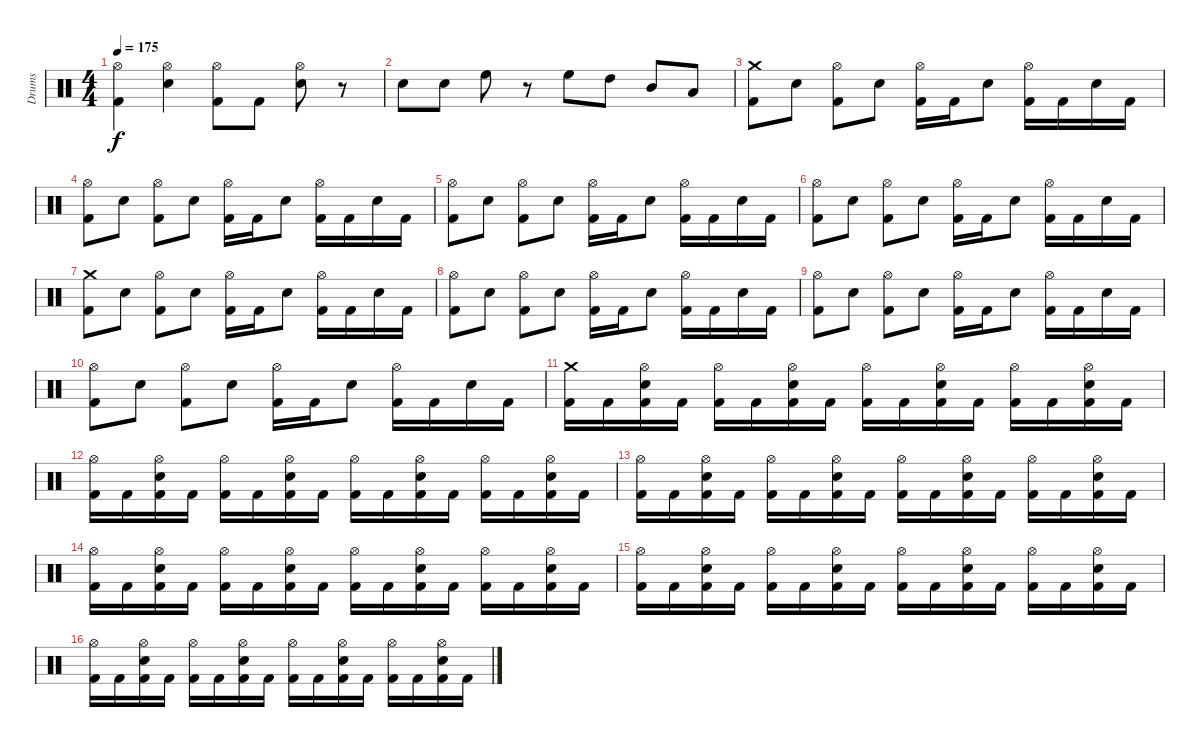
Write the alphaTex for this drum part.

\track ("Drums" "Drums") {instrument percussion}
\staff {score}
\articulation defaults
\ts (4 4)
\tempo 175
\clef neutral
\ks c
("Hi-Hat (open)" "Kick (hit) 2").4{dy f} ("Hi-Hat (open)" "Electric Snare (hit)").4 ("Hi-Hat (open)" "Kick (hit) 2").8 "Kick (hit) 2".8 ("Hi-Hat (open)" "Electric Snare (hit)").8 r.8 |
"Electric Snare (hit)".8 "Electric Snare (hit)".8 "High Floor Tom (hit)".8 r.8 "High Floor Tom (hit)".8 "High Tom (hit)".8 "Mid Tom (hit)".8 "Low Tom (hit)".8 |
("Crash medium (hit)" "Kick (hit) 2").8 "Electric Snare (hit)".8 ("Hi-Hat (open)" "Kick (hit) 2").8 "Electric Snare (hit)".8 ("Hi-Hat (open)" "Kick (hit) 2").16 "Kick (hit) 2".16 "Electric Snare (hit)".8 ("Hi-Hat (open)" "Kick (hit) 2").16 "Kick (hit) 2".16 "Electric Snare (hit)".16 "Kick (hit) 2".16 |
("Hi-Hat (open)" "Kick (hit) 2").8 "Electric Snare (hit)".8 ("Hi-Hat (open)" "Kick (hit) 2").8 "Electric Snare (hit)".8 ("Hi-Hat (open)" "Kick (hit) 2").16 "Kick (hit) 2".16 "Electric Snare (hit)".8 ("Hi-Hat (open)" "Kick (hit) 2").16 "Kick (hit) 2".16 "Electric Snare (hit)".16 "Kick (hit) 2".16 |
("Hi-Hat (open)" "Kick (hit) 2").8 "Electric Snare (hit)".8 ("Hi-Hat (open)" "Kick (hit) 2").8 "Electric Snare (hit)".8 ("Hi-Hat (open)" "Kick (hit) 2").16 "Kick (hit) 2".16 "Electric Snare (hit)".8 ("Hi-Hat (open)" "Kick (hit) 2").16 "Kick (hit) 2".16 "Electric Snare (hit)".16 "Kick (hit) 2".16 |
("Hi-Hat (open)" "Kick (hit) 2").8 "Electric Snare (hit)".8 ("Hi-Hat (open)" "Kick (hit) 2").8 "Electric Snare (hit)".8 ("Hi-Hat (open)" "Kick (hit) 2").16 "Kick (hit) 2".16 "Electric Snare (hit)".8 ("Hi-Hat (open)" "Kick (hit) 2").16 "Kick (hit) 2".16 "Electric Snare (hit)".16 "Kick (hit) 2".16 |
("Crash medium (hit)" "Kick (hit) 2").8 "Electric Snare (hit)".8 ("Hi-Hat (open)" "Kick (hit) 2").8 "Electric Snare (hit)".8 ("Hi-Hat (open)" "Kick (hit) 2").16 "Kick (hit) 2".16 "Electric Snare (hit)".8 ("Hi-Hat (open)" "Kick (hit) 2").16 "Kick (hit) 2".16 "Electric Snare (hit)".16 "Kick (hit) 2".16 |
("Hi-Hat (open)" "Kick (hit) 2").8 "Electric Snare (hit)".8 ("Hi-Hat (open)" "Kick (hit) 2").8 "Electric Snare (hit)".8 ("Hi-Hat (open)" "Kick (hit) 2").16 "Kick (hit) 2".16 "Electric Snare (hit)".8 ("Hi-Hat (open)" "Kick (hit) 2").16 "Kick (hit) 2".16 "Electric Snare (hit)".16 "Kick (hit) 2".16 |
("Hi-Hat (open)" "Kick (hit) 2").8 "Electric Snare (hit)".8 ("Hi-Hat (open)" "Kick (hit) 2").8 "Electric Snare (hit)".8 ("Hi-Hat (open)" "Kick (hit) 2").16 "Kick (hit) 2".16 "Electric Snare (hit)".8 ("Hi-Hat (open)" "Kick (hit) 2").16 "Kick (hit) 2".16 "Electric Snare (hit)".16 "Kick (hit) 2".16 |
("Hi-Hat (open)" "Kick (hit) 2").8 "Electric Snare (hit)".8 ("Hi-Hat (open)" "Kick (hit) 2").8 "Electric Snare (hit)".8 ("Hi-Hat (open)" "Kick (hit) 2").16 "Kick (hit) 2".16 "Electric Snare (hit)".8 ("Hi-Hat (open)" "Kick (hit) 2").16 "Kick (hit) 2".16 "Electric Snare (hit)".16 "Kick (hit) 2".16 |
("Crash medium (hit)" "Kick (hit) 2").16 "Kick (hit) 2".16 ("Hi-Hat (open)" "Kick (hit) 2" "Electric Snare (hit)").16 "Kick (hit) 2".16 ("Hi-Hat (open)" "Kick (hit) 2").16 "Kick (hit) 2".16 ("Hi-Hat (open)" "Kick (hit) 2" "Electric Snare (hit)").16 "Kick (hit) 2".16 ("Hi-Hat (open)" "Kick (hit) 2").16 "Kick (hit) 2".16 ("Hi-Hat (open)" "Kick (hit) 2" "Electric Snare (hit)").16 "Kick (hit) 2".16 ("Hi-Hat (open)" "Kick (hit) 2").16 "Kick (hit) 2".16 ("Hi-Hat (open)" "Kick (hit) 2" "Electric Snare (hit)").16 "Kick (hit) 2".16 |
("Hi-Hat (open)" "Kick (hit) 2").16 "Kick (hit) 2".16 ("Hi-Hat (open)" "Kick (hit) 2" "Electric Snare (hit)").16 "Kick (hit) 2".16 ("Hi-Hat (open)" "Kick (hit) 2").16 "Kick (hit) 2".16 ("Hi-Hat (open)" "Kick (hit) 2" "Electric Snare (hit)").16 "Kick (hit) 2".16 ("Hi-Hat (open)" "Kick (hit) 2").16 "Kick (hit) 2".16 ("Hi-Hat (open)" "Kick (hit) 2" "Electric Snare (hit)").16 "Kick (hit) 2".16 ("Hi-Hat (open)" "Kick (hit) 2").16 "Kick (hit) 2".16 ("Hi-Hat (open)" "Kick (hit) 2" "Electric Snare (hit)").16 "Kick (hit) 2".16 |
("Hi-Hat (open)" "Kick (hit) 2").16 "Kick (hit) 2".16 ("Hi-Hat (open)" "Kick (hit) 2" "Electric Snare (hit)").16 "Kick (hit) 2".16 ("Hi-Hat (open)" "Kick (hit) 2").16 "Kick (hit) 2".16 ("Hi-Hat (open)" "Kick (hit) 2" "Electric Snare (hit)").16 "Kick (hit) 2".16 ("Hi-Hat (open)" "Kick (hit) 2").16 "Kick (hit) 2".16 ("Hi-Hat (open)" "Kick (hit) 2" "Electric Snare (hit)").16 "Kick (hit) 2".16 ("Hi-Hat (open)" "Kick (hit) 2").16 "Kick (hit) 2".16 ("Hi-Hat (open)" "Kick (hit) 2" "Electric Snare (hit)").16 "Kick (hit) 2".16 |
("Hi-Hat (open)" "Kick (hit) 2").16 "Kick (hit) 2".16 ("Hi-Hat (open)" "Kick (hit) 2" "Electric Snare (hit)").16 "Kick (hit) 2".16 ("Hi-Hat (open)" "Kick (hit) 2").16 "Kick (hit) 2".16 ("Hi-Hat (open)" "Kick (hit) 2" "Electric Snare (hit)").16 "Kick (hit) 2".16 ("Hi-Hat (open)" "Kick (hit) 2").16 "Kick (hit) 2".16 ("Hi-Hat (open)" "Kick (hit) 2" "Electric Snare (hit)").16 "Kick (hit) 2".16 ("Hi-Hat (open)" "Kick (hit) 2").16 "Kick (hit) 2".16 ("Hi-Hat (open)" "Kick (hit) 2" "Electric Snare (hit)").16 "Kick (hit) 2".16 |
("Hi-Hat (open)" "Kick (hit) 2").16 "Kick (hit) 2".16 ("Hi-Hat (open)" "Kick (hit) 2" "Electric Snare (hit)").16 "Kick (hit) 2".16 ("Hi-Hat (open)" "Kick (hit) 2").16 "Kick (hit) 2".16 ("Hi-Hat (open)" "Kick (hit) 2" "Electric Snare (hit)").16 "Kick (hit) 2".16 ("Hi-Hat (open)" "Kick (hit) 2").16 "Kick (hit) 2".16 ("Hi-Hat (open)" "Kick (hit) 2" "Electric Snare (hit)").16 "Kick (hit) 2".16 ("Hi-Hat (open)" "Kick (hit) 2").16 "Kick (hit) 2".16 ("Hi-Hat (open)" "Kick (hit) 2" "Electric Snare (hit)").16 "Kick (hit) 2".16 |
("Hi-Hat (open)" "Kick (hit) 2").16 "Kick (hit) 2".16 ("Hi-Hat (open)" "Kick (hit) 2" "Electric Snare (hit)").16 "Kick (hit) 2".16 ("Hi-Hat (open)" "Kick (hit) 2").16 "Kick (hit) 2".16 ("Hi-Hat (open)" "Kick (hit) 2" "Electric Snare (hit)").16 "Kick (hit) 2".16 ("Hi-Hat (open)" "Kick (hit) 2").16 "Kick (hit) 2".16 ("Hi-Hat (open)" "Kick (hit) 2" "Electric Snare (hit)").16 "Kick (hit) 2".16 ("Hi-Hat (open)" "Kick (hit) 2").16 "Kick (hit) 2".16 ("Hi-Hat (open)" "Kick (hit) 2" "Electric Snare (hit)").16 "Kick (hit) 2".16
